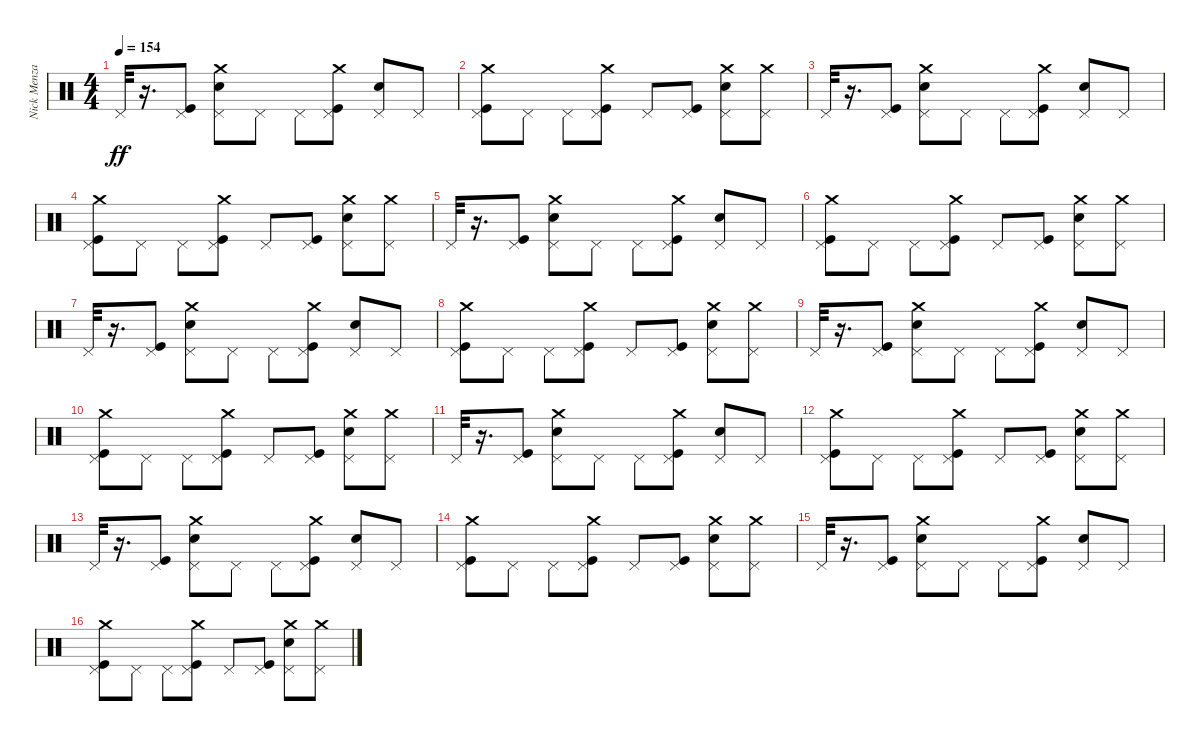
\track ("Nick Menza" "Nick Menza") {instrument percussion}
\staff {score}
\articulation defaults
\ts (4 4)
\tempo 154
\clef neutral
\ks c "Pedal Hi-Hat (hit)".32{dy ff}
r.16{d} ("Pedal Hi-Hat (hit)" "Kick (hit)").8 ("Electric Snare (hit)" "Pedal Hi-Hat (hit)" "Crash medium (hit)").8 "Pedal Hi-Hat (hit)".8 "Pedal Hi-Hat (hit)".8 ("Kick (hit)" "Pedal Hi-Hat (hit)" "Crash medium (hit)").8 ("Electric Snare (hit)" "Pedal Hi-Hat (hit)").8 "Pedal Hi-Hat (hit)".8 |
("Crash medium (hit)" "Kick (hit)" "Pedal Hi-Hat (hit)").8 "Pedal Hi-Hat (hit)".8 "Pedal Hi-Hat (hit)".8 ("Crash medium (hit)" "Pedal Hi-Hat (hit)" "Kick (hit)").8 "Pedal Hi-Hat (hit)".8 ("Kick (hit)" "Pedal Hi-Hat (hit)").8 ("Crash medium (hit)" "Electric Snare (hit)" "Pedal Hi-Hat (hit)").8 ("Crash medium (hit)" "Pedal Hi-Hat (hit)").8 |
"Pedal Hi-Hat (hit)".32 r.16{d} ("Pedal Hi-Hat (hit)" "Kick (hit)").8 ("Electric Snare (hit)" "Pedal Hi-Hat (hit)" "Crash medium (hit)").8 "Pedal Hi-Hat (hit)".8 "Pedal Hi-Hat (hit)".8 ("Kick (hit)" "Pedal Hi-Hat (hit)" "Crash medium (hit)").8 ("Electric Snare (hit)" "Pedal Hi-Hat (hit)").8 "Pedal Hi-Hat (hit)".8 |
("Crash medium (hit)" "Pedal Hi-Hat (hit)" "Kick (hit)").8 "Pedal Hi-Hat (hit)".8 "Pedal Hi-Hat (hit)".8 ("Crash medium (hit)" "Pedal Hi-Hat (hit)" "Kick (hit)").8 "Pedal Hi-Hat (hit)".8 ("Kick (hit)" "Pedal Hi-Hat (hit)").8 ("Crash medium (hit)" "Electric Snare (hit)" "Pedal Hi-Hat (hit)").8 ("Crash medium (hit)" "Pedal Hi-Hat (hit)").8 |
"Pedal Hi-Hat (hit)".32 r.16{d} ("Pedal Hi-Hat (hit)" "Kick (hit)").8 ("Crash medium (hit)" "Electric Snare (hit)" "Pedal Hi-Hat (hit)").8 "Pedal Hi-Hat (hit)".8 "Pedal Hi-Hat (hit)".8 ("Crash medium (hit)" "Kick (hit)" "Pedal Hi-Hat (hit)").8 ("Electric Snare (hit)" "Pedal Hi-Hat (hit)").8 "Pedal Hi-Hat (hit)".8 |
("Crash medium (hit)" "Pedal Hi-Hat (hit)" "Kick (hit)").8 "Pedal Hi-Hat (hit)".8 "Pedal Hi-Hat (hit)".8 ("Crash medium (hit)" "Pedal Hi-Hat (hit)" "Kick (hit)").8 "Pedal Hi-Hat (hit)".8 ("Kick (hit)" "Pedal Hi-Hat (hit)").8 ("Electric Snare (hit)" "Pedal Hi-Hat (hit)" "Crash medium (hit)").8 ("Crash medium (hit)" "Pedal Hi-Hat (hit)").8 |
"Pedal Hi-Hat (hit)".32 r.16{d} ("Pedal Hi-Hat (hit)" "Kick (hit)").8 ("Crash medium (hit)" "Pedal Hi-Hat (hit)" "Electric Snare (hit)").8 "Pedal Hi-Hat (hit)".8 "Pedal Hi-Hat (hit)".8 ("Kick (hit)" "Pedal Hi-Hat (hit)" "Crash medium (hit)").8 ("Electric Snare (hit)" "Pedal Hi-Hat (hit)").8 "Pedal Hi-Hat (hit)".8 |
("Crash medium (hit)" "Kick (hit)" "Pedal Hi-Hat (hit)").8 "Pedal Hi-Hat (hit)".8 "Pedal Hi-Hat (hit)".8 ("Crash medium (hit)" "Pedal Hi-Hat (hit)" "Kick (hit)").8 "Pedal Hi-Hat (hit)".8 ("Kick (hit)" "Pedal Hi-Hat (hit)").8 ("Electric Snare (hit)" "Pedal Hi-Hat (hit)" "Crash medium (hit)").8 ("Crash medium (hit)" "Pedal Hi-Hat (hit)").8 |
"Pedal Hi-Hat (hit)".32 r.16{d} ("Pedal Hi-Hat (hit)" "Kick (hit)").8 ("Electric Snare (hit)" "Pedal Hi-Hat (hit)" "Crash medium (hit)").8 "Pedal Hi-Hat (hit)".8 "Pedal Hi-Hat (hit)".8 ("Kick (hit)" "Pedal Hi-Hat (hit)" "Crash medium (hit)").8 ("Electric Snare (hit)" "Pedal Hi-Hat (hit)").8 "Pedal Hi-Hat (hit)".8 |
("Crash medium (hit)" "Kick (hit)" "Pedal Hi-Hat (hit)").8 "Pedal Hi-Hat (hit)".8 "Pedal Hi-Hat (hit)".8 ("Crash medium (hit)" "Pedal Hi-Hat (hit)" "Kick (hit)").8 "Pedal Hi-Hat (hit)".8 ("Kick (hit)" "Pedal Hi-Hat (hit)").8 ("Crash medium (hit)" "Electric Snare (hit)" "Pedal Hi-Hat (hit)").8 ("Crash medium (hit)" "Pedal Hi-Hat (hit)").8 |
"Pedal Hi-Hat (hit)".32 r.16{d} ("Pedal Hi-Hat (hit)" "Kick (hit)").8 ("Electric Snare (hit)" "Pedal Hi-Hat (hit)" "Crash medium (hit)").8 "Pedal Hi-Hat (hit)".8 "Pedal Hi-Hat (hit)".8 ("Kick (hit)" "Pedal Hi-Hat (hit)" "Crash medium (hit)").8 ("Electric Snare (hit)" "Pedal Hi-Hat (hit)").8 "Pedal Hi-Hat (hit)".8 |
("Crash medium (hit)" "Pedal Hi-Hat (hit)" "Kick (hit)").8 "Pedal Hi-Hat (hit)".8 "Pedal Hi-Hat (hit)".8 ("Crash medium (hit)" "Pedal Hi-Hat (hit)" "Kick (hit)").8 "Pedal Hi-Hat (hit)".8 ("Kick (hit)" "Pedal Hi-Hat (hit)").8 ("Crash medium (hit)" "Electric Snare (hit)" "Pedal Hi-Hat (hit)").8 ("Crash medium (hit)" "Pedal Hi-Hat (hit)").8 |
"Pedal Hi-Hat (hit)".32 r.16{d} ("Pedal Hi-Hat (hit)" "Kick (hit)").8 ("Crash medium (hit)" "Electric Snare (hit)" "Pedal Hi-Hat (hit)").8 "Pedal Hi-Hat (hit)".8 "Pedal Hi-Hat (hit)".8 ("Crash medium (hit)" "Kick (hit)" "Pedal Hi-Hat (hit)").8 ("Electric Snare (hit)" "Pedal Hi-Hat (hit)").8 "Pedal Hi-Hat (hit)".8 |
("Crash medium (hit)" "Pedal Hi-Hat (hit)" "Kick (hit)").8 "Pedal Hi-Hat (hit)".8 "Pedal Hi-Hat (hit)".8 ("Crash medium (hit)" "Pedal Hi-Hat (hit)" "Kick (hit)").8 "Pedal Hi-Hat (hit)".8 ("Kick (hit)" "Pedal Hi-Hat (hit)").8 ("Crash medium (hit)" "Electric Snare (hit)" "Pedal Hi-Hat (hit)").8 ("Crash medium (hit)" "Pedal Hi-Hat (hit)").8 |
"Pedal Hi-Hat (hit)".32 r.16{d} ("Pedal Hi-Hat (hit)" "Kick (hit)").8 ("Crash medium (hit)" "Pedal Hi-Hat (hit)" "Electric Snare (hit)").8 "Pedal Hi-Hat (hit)".8 "Pedal Hi-Hat (hit)".8 ("Kick (hit)" "Pedal Hi-Hat (hit)" "Crash medium (hit)").8 ("Electric Snare (hit)" "Pedal Hi-Hat (hit)").8 "Pedal Hi-Hat (hit)".8 |
("Crash medium (hit)" "Kick (hit)" "Pedal Hi-Hat (hit)").8 "Pedal Hi-Hat (hit)".8 "Pedal Hi-Hat (hit)".8 ("Crash medium (hit)" "Pedal Hi-Hat (hit)" "Kick (hit)").8 "Pedal Hi-Hat (hit)".8 ("Kick (hit)" "Pedal Hi-Hat (hit)").8 ("Crash medium (hit)" "Electric Snare (hit)" "Pedal Hi-Hat (hit)").8 ("Crash medium (hit)" "Pedal Hi-Hat (hit)").8
